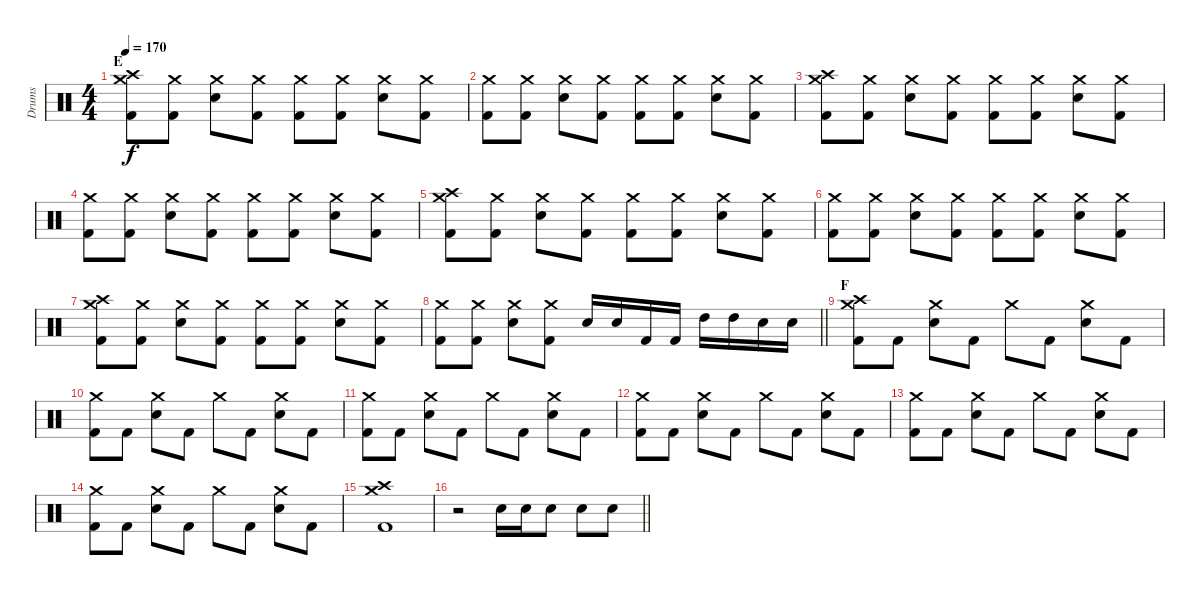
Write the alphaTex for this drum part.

\track ("Drums" "Drums") {instrument percussion}
\staff {score}
\articulation defaults
\ts (4 4)
\section ("" "E")
\tempo 170
\clef neutral
\ks c
("Kick (hit) 2" "Crash high (hit)" "Crash medium (hit)").8{dy f} ("Kick (hit) 2" "Crash medium (hit)").8 ("Snare (hit) 2" "Crash medium (hit)").8 ("Kick (hit) 2" "Crash medium (hit)").8 ("Kick (hit) 2" "Crash medium (hit)").8 ("Kick (hit) 2" "Crash medium (hit)").8 ("Snare (hit) 2" "Crash medium (hit)").8 ("Kick (hit) 2" "Crash medium (hit)").8 |
("Kick (hit) 2" "Crash medium (hit)").8 ("Kick (hit) 2" "Crash medium (hit)").8 ("Snare (hit) 2" "Crash medium (hit)").8 ("Kick (hit) 2" "Crash medium (hit)").8 ("Kick (hit) 2" "Crash medium (hit)").8 ("Kick (hit) 2" "Crash medium (hit)").8 ("Snare (hit) 2" "Crash medium (hit)").8 ("Kick (hit) 2" "Crash medium (hit)").8 |
("Kick (hit) 2" "Crash high (hit)" "Crash medium (hit)").8 ("Kick (hit) 2" "Crash medium (hit)").8 ("Snare (hit) 2" "Crash medium (hit)").8 ("Kick (hit) 2" "Crash medium (hit)").8 ("Kick (hit) 2" "Crash medium (hit)").8 ("Kick (hit) 2" "Crash medium (hit)").8 ("Snare (hit) 2" "Crash medium (hit)").8 ("Kick (hit) 2" "Crash medium (hit)").8 |
("Kick (hit) 2" "Crash medium (hit)").8 ("Kick (hit) 2" "Crash medium (hit)").8 ("Snare (hit) 2" "Crash medium (hit)").8 ("Kick (hit) 2" "Crash medium (hit)").8 ("Kick (hit) 2" "Crash medium (hit)").8 ("Kick (hit) 2" "Crash medium (hit)").8 ("Snare (hit) 2" "Crash medium (hit)").8 ("Kick (hit) 2" "Crash medium (hit)").8 |
("Kick (hit) 2" "Crash high (hit)" "Crash medium (hit)").8 ("Kick (hit) 2" "Crash medium (hit)").8 ("Snare (hit) 2" "Crash medium (hit)").8 ("Kick (hit) 2" "Crash medium (hit)").8 ("Kick (hit) 2" "Crash medium (hit)").8 ("Kick (hit) 2" "Crash medium (hit)").8 ("Snare (hit) 2" "Crash medium (hit)").8 ("Kick (hit) 2" "Crash medium (hit)").8 |
("Kick (hit) 2" "Crash medium (hit)").8 ("Kick (hit) 2" "Crash medium (hit)").8 ("Snare (hit) 2" "Crash medium (hit)").8 ("Kick (hit) 2" "Crash medium (hit)").8 ("Kick (hit) 2" "Crash medium (hit)").8 ("Kick (hit) 2" "Crash medium (hit)").8 ("Snare (hit) 2" "Crash medium (hit)").8 ("Kick (hit) 2" "Crash medium (hit)").8 |
("Kick (hit) 2" "Crash high (hit)" "Crash medium (hit)").8 ("Kick (hit) 2" "Crash medium (hit)").8 ("Snare (hit) 2" "Crash medium (hit)").8 ("Kick (hit) 2" "Crash medium (hit)").8 ("Kick (hit) 2" "Crash medium (hit)").8 ("Kick (hit) 2" "Crash medium (hit)").8 ("Snare (hit) 2" "Crash medium (hit)").8 ("Kick (hit) 2" "Crash medium (hit)").8 |
\barLineRight lightlight
("Kick (hit) 2" "Crash medium (hit)").8 ("Kick (hit) 2" "Crash medium (hit)").8 ("Snare (hit) 2" "Crash medium (hit)").8 ("Kick (hit) 2" "Crash medium (hit)").8 "Snare (hit) 2".16 "Snare (hit) 2".16 "Kick (hit) 2".16 "Kick (hit) 2".16 "High Tom (hit)".16 "High Tom (hit)".16 "Snare (hit) 2".16 "Snare (hit) 2".16 |
\section ("" "F")
("Kick (hit) 2" "Crash high (hit)" "Crash medium (hit)").8 "Kick (hit) 2".8 ("Snare (hit) 2" "Crash medium (hit)").8 "Kick (hit) 2".8 "Crash medium (hit)".8 "Kick (hit) 2".8 ("Snare (hit) 2" "Crash medium (hit)").8 "Kick (hit) 2".8 |
("Kick (hit) 2" "Crash medium (hit)").8 "Kick (hit) 2".8 ("Snare (hit) 2" "Crash medium (hit)").8 "Kick (hit) 2".8 "Crash medium (hit)".8 "Kick (hit) 2".8 ("Snare (hit) 2" "Crash medium (hit)").8 "Kick (hit) 2".8 |
("Kick (hit) 2" "Crash medium (hit)").8 "Kick (hit) 2".8 ("Snare (hit) 2" "Crash medium (hit)").8 "Kick (hit) 2".8 "Crash medium (hit)".8 "Kick (hit) 2".8 ("Snare (hit) 2" "Crash medium (hit)").8 "Kick (hit) 2".8 |
("Kick (hit) 2" "Crash medium (hit)").8 "Kick (hit) 2".8 ("Snare (hit) 2" "Crash medium (hit)").8 "Kick (hit) 2".8 "Crash medium (hit)".8 "Kick (hit) 2".8 ("Snare (hit) 2" "Crash medium (hit)").8 "Kick (hit) 2".8 |
("Kick (hit) 2" "Crash medium (hit)").8 "Kick (hit) 2".8 ("Snare (hit) 2" "Crash medium (hit)").8 "Kick (hit) 2".8 "Crash medium (hit)".8 "Kick (hit) 2".8 ("Snare (hit) 2" "Crash medium (hit)").8 "Kick (hit) 2".8 |
("Kick (hit) 2" "Crash medium (hit)").8 "Kick (hit) 2".8 ("Snare (hit) 2" "Crash medium (hit)").8 "Kick (hit) 2".8 "Crash medium (hit)".8 "Kick (hit) 2".8 ("Snare (hit) 2" "Crash medium (hit)").8 "Kick (hit) 2".8 |
("Kick (hit) 2" "Crash high (hit)" "Crash medium (hit)").1 |
\barLineRight lightlight
r.2 "Snare (hit) 2".16 "Snare (hit) 2".16 "Snare (hit) 2".8 "Snare (hit) 2".8 "Snare (hit) 2".8
